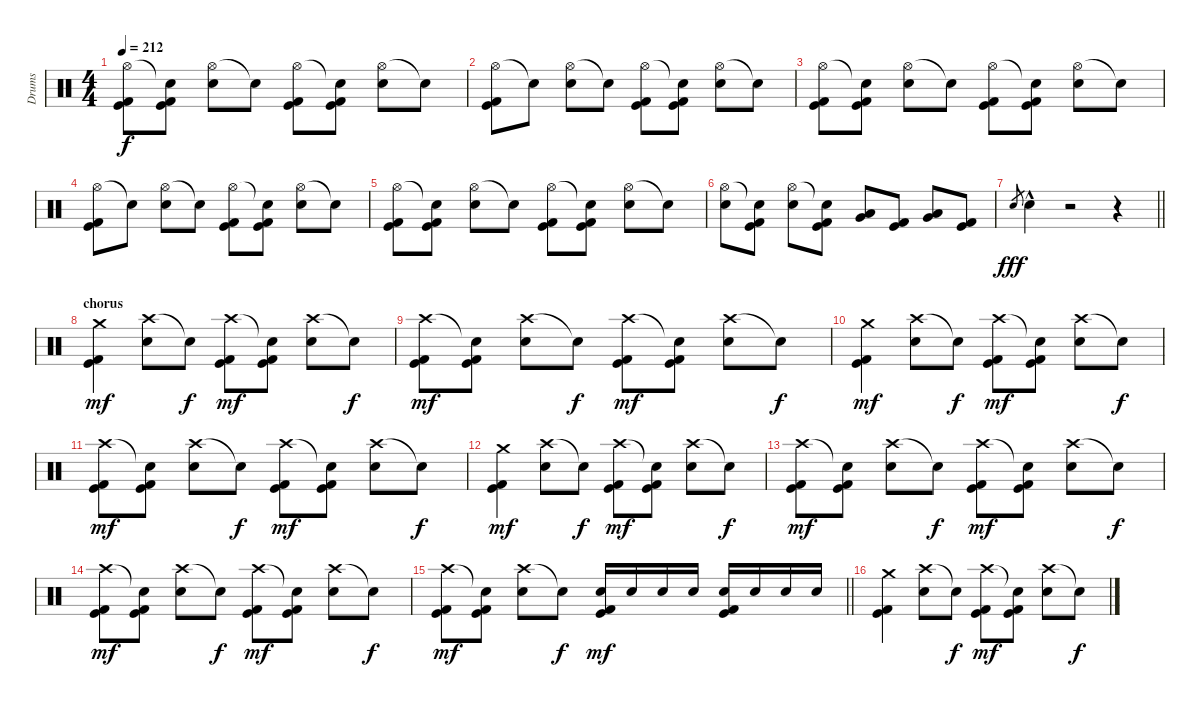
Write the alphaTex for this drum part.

\track ("Drums" "Drums") {instrument percussion}
\staff {score}
\articulation defaults
\ts (4 4)
\tempo 212
\clef neutral
\ks c
("Hi-Hat (open)" "Kick (hit)" "Kick (hit) 2").8{dy f} ("Snare (hit)"{t} "Kick (hit)" "Kick (hit) 2").8 ("Hi-Hat (open)" "Snare (hit) 2").8 "Snare (hit)"{t}.8 ("Hi-Hat (open)" "Kick (hit)" "Kick (hit) 2").8 ("Snare (hit)"{t} "Kick (hit)" "Kick (hit) 2").8 ("Hi-Hat (open)" "Snare (hit) 2").8 "Snare (hit)"{t}.8 |
("Hi-Hat (open)" "Kick (hit)" "Kick (hit) 2").8 "Snare (hit)"{t}.8 ("Hi-Hat (open)" "Snare (hit) 2").8 "Snare (hit)"{t}.8 ("Hi-Hat (open)" "Kick (hit)" "Kick (hit) 2").8 ("Snare (hit)"{t} "Kick (hit)" "Kick (hit) 2").8 ("Hi-Hat (open)" "Snare (hit) 2").8 "Snare (hit)"{t}.8 |
("Hi-Hat (open)" "Kick (hit)" "Kick (hit) 2").8 ("Snare (hit)"{t} "Kick (hit)" "Kick (hit) 2").8 ("Hi-Hat (open)" "Snare (hit) 2").8 "Snare (hit)"{t}.8 ("Hi-Hat (open)" "Kick (hit)" "Kick (hit) 2").8 ("Snare (hit)"{t} "Kick (hit)" "Kick (hit) 2").8 ("Hi-Hat (open)" "Snare (hit) 2").8 "Snare (hit)"{t}.8 |
("Hi-Hat (open)" "Kick (hit)" "Kick (hit) 2").8 "Snare (hit)"{t}.8 ("Hi-Hat (open)" "Snare (hit) 2").8 "Snare (hit)"{t}.8 ("Hi-Hat (open)" "Kick (hit)" "Kick (hit) 2").8 ("Snare (hit)"{t} "Kick (hit)" "Kick (hit) 2").8 ("Hi-Hat (open)" "Snare (hit) 2").8 "Snare (hit)"{t}.8 |
("Hi-Hat (open)" "Kick (hit)" "Kick (hit) 2").8 ("Snare (hit)"{t} "Kick (hit)" "Kick (hit) 2").8 ("Hi-Hat (open)" "Snare (hit) 2").8 "Snare (hit)"{t}.8 ("Hi-Hat (open)" "Kick (hit)" "Kick (hit) 2").8 ("Snare (hit)"{t} "Kick (hit)" "Kick (hit) 2").8 ("Hi-Hat (open)" "Snare (hit) 2").8 "Snare (hit)"{t}.8 |
("Hi-Hat (open)" "Snare (hit) 2").8 ("Snare (hit)"{t} "Kick (hit)" "Kick (hit) 2").8 ("Hi-Hat (open)" "Snare (hit) 2").8 ("Snare (hit)"{t} "Kick (hit)" "Kick (hit) 2").8 ("Low Tom (hit)" "Very Low Tom (hit)").8 ("Kick (hit)" "Kick (hit) 2").8 ("Low Floor Tom (hit)" "Very Low Tom (hit)").8 ("Kick (hit)" "Kick (hit) 2").8 |
\barLineRight lightlight "Snare (hit) 2"{h}.8{gr dy fff} "Snare (hit) 2"{hac}.4
r.2 r.4 |
\section ("" "chorus")
("Crash medium (hit)" "Kick (hit)" "Kick (hit) 2").4{dy mf} ("Crash high (hit)" "Snare (hit) 2").8 "Snare (hit)"{t}.8{dy f} ("Crash high (hit)" "Kick (hit)" "Kick (hit) 2").8{dy mf} ("Snare (hit)"{t} "Kick (hit)" "Kick (hit) 2").8 ("Crash high (hit)" "Snare (hit) 2").8 "Snare (hit)"{t}.8{dy f} |
("Crash high (hit)" "Kick (hit)" "Kick (hit) 2").8{dy mf} ("Snare (hit)"{t} "Kick (hit)" "Kick (hit) 2").8 ("Crash high (hit)" "Snare (hit) 2").8 "Snare (hit)"{t}.8{dy f} ("Crash high (hit)" "Kick (hit)" "Kick (hit) 2").8{dy mf} ("Snare (hit)"{t} "Kick (hit)" "Kick (hit) 2").8 ("Crash high (hit)" "Snare (hit) 2").8 "Snare (hit)"{t}.8{dy f} |
("Crash medium (hit)" "Kick (hit)" "Kick (hit) 2").4{dy mf} ("Crash high (hit)" "Snare (hit) 2").8 "Snare (hit)"{t}.8{dy f} ("Crash high (hit)" "Kick (hit)" "Kick (hit) 2").8{dy mf} ("Snare (hit)"{t} "Kick (hit)" "Kick (hit) 2").8 ("Crash high (hit)" "Snare (hit) 2").8 "Snare (hit)"{t}.8{dy f} |
("Crash high (hit)" "Kick (hit)" "Kick (hit) 2").8{dy mf} ("Snare (hit)"{t} "Kick (hit)" "Kick (hit) 2").8 ("Crash high (hit)" "Snare (hit) 2").8 "Snare (hit)"{t}.8{dy f} ("Crash high (hit)" "Kick (hit)" "Kick (hit) 2").8{dy mf} ("Snare (hit)"{t} "Kick (hit)" "Kick (hit) 2").8 ("Crash high (hit)" "Snare (hit) 2").8 "Snare (hit)"{t}.8{dy f} |
("Crash medium (hit)" "Kick (hit)" "Kick (hit) 2").4{dy mf} ("Crash high (hit)" "Snare (hit) 2").8 "Snare (hit)"{t}.8{dy f} ("Crash high (hit)" "Kick (hit)" "Kick (hit) 2").8{dy mf} ("Snare (hit)"{t} "Kick (hit)" "Kick (hit) 2").8 ("Crash high (hit)" "Snare (hit) 2").8 "Snare (hit)"{t}.8{dy f} |
("Crash high (hit)" "Kick (hit)" "Kick (hit) 2").8{dy mf} ("Snare (hit)"{t} "Kick (hit)" "Kick (hit) 2").8 ("Crash high (hit)" "Snare (hit) 2").8 "Snare (hit)"{t}.8{dy f} ("Crash high (hit)" "Kick (hit)" "Kick (hit) 2").8{dy mf} ("Snare (hit)"{t} "Kick (hit)" "Kick (hit) 2").8 ("Crash high (hit)" "Snare (hit) 2").8 "Snare (hit)"{t}.8{dy f} |
("Crash high (hit)" "Kick (hit)" "Kick (hit) 2").8{dy mf} ("Snare (hit)"{t} "Kick (hit)" "Kick (hit) 2").8 ("Crash high (hit)" "Snare (hit) 2").8 "Snare (hit)"{t}.8{dy f} ("Crash high (hit)" "Kick (hit)" "Kick (hit) 2").8{dy mf} ("Snare (hit)"{t} "Kick (hit)" "Kick (hit) 2").8 ("Crash high (hit)" "Snare (hit) 2").8 "Snare (hit)"{t}.8{dy f} |
\barLineRight lightlight
("Crash high (hit)" "Kick (hit)" "Kick (hit) 2").8{dy mf} ("Snare (hit)"{t} "Kick (hit)" "Kick (hit) 2").8 ("Crash high (hit)" "Snare (hit) 2").8 "Snare (hit)"{t}.8{dy f} ("Snare (hit) 2" "Kick (hit)" "Kick (hit) 2").16{dy mf} "Snare (hit) 2".16 "Snare (hit) 2".16 "Snare (hit) 2".16 ("Snare (hit) 2" "Kick (hit)" "Kick (hit) 2").16 "Snare (hit) 2".16 "Snare (hit) 2".16 "Snare (hit) 2".16 |
("Crash medium (hit)" "Kick (hit)" "Kick (hit) 2").4 ("Crash high (hit)" "Snare (hit) 2").8 "Snare (hit)"{t}.8{dy f} ("Crash high (hit)" "Kick (hit)" "Kick (hit) 2").8{dy mf} ("Snare (hit)"{t} "Kick (hit)" "Kick (hit) 2").8 ("Crash high (hit)" "Snare (hit) 2").8 "Snare (hit)"{t}.8{dy f}
